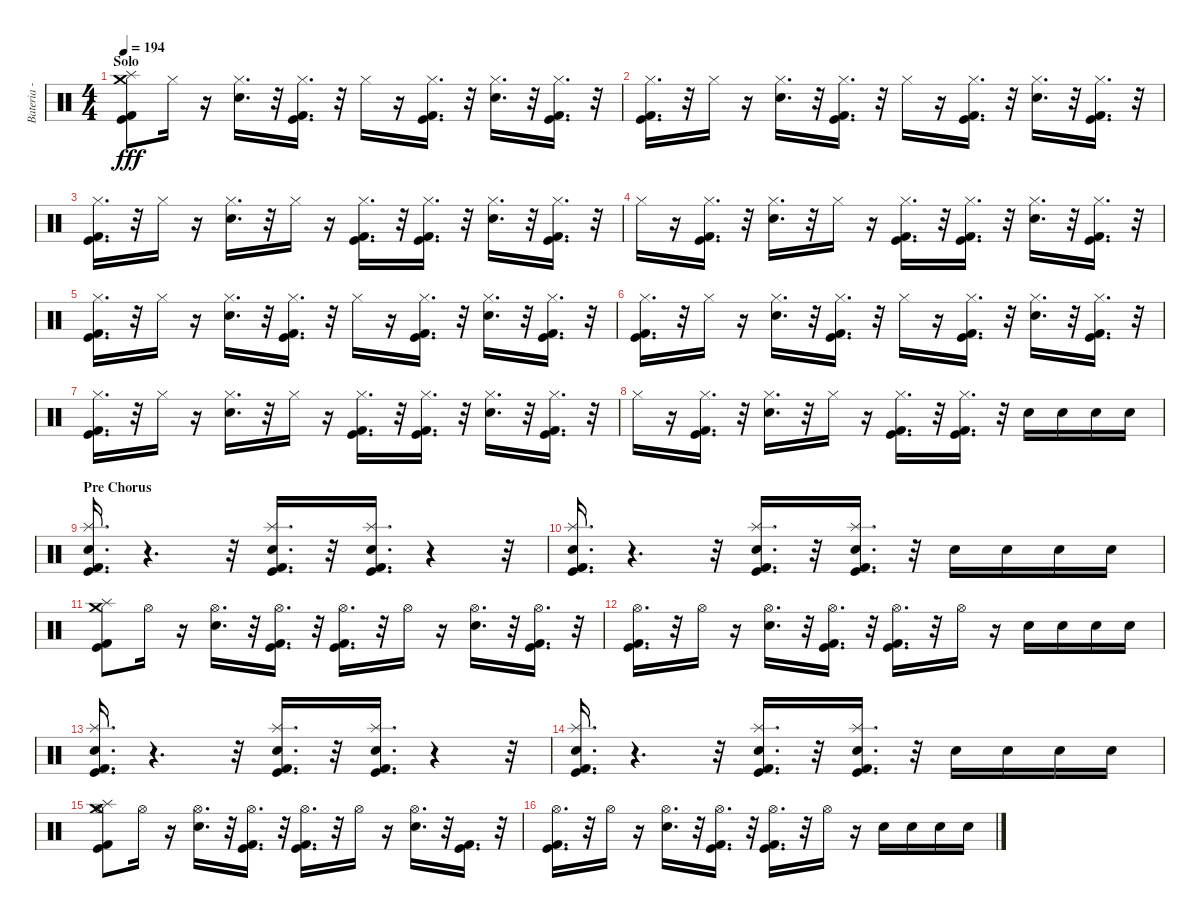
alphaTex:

\track ("Bateria - Larzon" "Bateria - ") {instrument percussion}
\staff {score}
\articulation defaults
\ts (4 4)
\section ("" "Solo")
\tempo 194
\clef neutral
\ks c
("Kick (hit)" "Kick (hit) 2" "Splash (hit)" "Crash medium (hit)").8{dy fff} "Hi-Hat (closed)".16 r.16 ("Hi-Hat (closed)" "Electric Snare (hit)").16{d} r.32 ("Hi-Hat (closed)" "Kick (hit)" "Kick (hit) 2").16{d} r.32 "Hi-Hat (closed)".16 r.16 ("Hi-Hat (closed)" "Kick (hit)" "Kick (hit) 2").16{d} r.32 ("Hi-Hat (closed)" "Electric Snare (hit)").16{d} r.32 ("Hi-Hat (closed)" "Kick (hit)" "Kick (hit) 2").16{d} r.32 |
("Kick (hit)" "Kick (hit) 2" "Hi-Hat (closed)").16{d} r.32 "Hi-Hat (closed)".16 r.16 ("Hi-Hat (closed)" "Electric Snare (hit)").16{d} r.32 ("Hi-Hat (closed)" "Kick (hit)" "Kick (hit) 2").16{d} r.32 "Hi-Hat (closed)".16 r.16 ("Hi-Hat (closed)" "Kick (hit)" "Kick (hit) 2").16{d} r.32 ("Hi-Hat (closed)" "Electric Snare (hit)").16{d} r.32 ("Hi-Hat (closed)" "Kick (hit)" "Kick (hit) 2").16{d} r.32 |
("Kick (hit)" "Kick (hit) 2" "Hi-Hat (closed)").16{d} r.32 "Hi-Hat (closed)".16 r.16 ("Hi-Hat (closed)" "Electric Snare (hit)").16{d} r.32 "Hi-Hat (closed)".16 r.16 ("Kick (hit)" "Kick (hit) 2" "Hi-Hat (closed)").16{d} r.32 ("Hi-Hat (closed)" "Kick (hit)" "Kick (hit) 2").16{d} r.32 ("Hi-Hat (closed)" "Electric Snare (hit)").16{d} r.32 ("Hi-Hat (closed)" "Kick (hit)" "Kick (hit) 2").16{d} r.32 |
"Hi-Hat (closed)".16 r.16 ("Hi-Hat (closed)" "Kick (hit)" "Kick (hit) 2").16{d} r.32 ("Hi-Hat (closed)" "Electric Snare (hit)").16{d} r.32 "Hi-Hat (closed)".16 r.16 ("Hi-Hat (closed)" "Kick (hit)" "Kick (hit) 2").16{d} r.32 ("Hi-Hat (closed)" "Kick (hit)" "Kick (hit) 2").16{d} r.32 ("Hi-Hat (closed)" "Electric Snare (hit)").16{d} r.32 ("Hi-Hat (closed)" "Kick (hit)" "Kick (hit) 2").16{d} r.32 |
("Kick (hit)" "Kick (hit) 2" "Hi-Hat (closed)").16{d} r.32 "Hi-Hat (closed)".16 r.16 ("Hi-Hat (closed)" "Electric Snare (hit)").16{d} r.32 ("Hi-Hat (closed)" "Kick (hit)" "Kick (hit) 2").16{d} r.32 "Hi-Hat (closed)".16 r.16 ("Hi-Hat (closed)" "Kick (hit)" "Kick (hit) 2").16{d} r.32 ("Hi-Hat (closed)" "Electric Snare (hit)").16{d} r.32 ("Hi-Hat (closed)" "Kick (hit)" "Kick (hit) 2").16{d} r.32 |
("Kick (hit)" "Kick (hit) 2" "Hi-Hat (closed)").16{d} r.32 "Hi-Hat (closed)".16 r.16 ("Hi-Hat (closed)" "Electric Snare (hit)").16{d} r.32 ("Hi-Hat (closed)" "Kick (hit)" "Kick (hit) 2").16{d} r.32 "Hi-Hat (closed)".16 r.16 ("Hi-Hat (closed)" "Kick (hit)" "Kick (hit) 2").16{d} r.32 ("Hi-Hat (closed)" "Electric Snare (hit)").16{d} r.32 ("Hi-Hat (closed)" "Kick (hit)" "Kick (hit) 2").16{d} r.32 |
("Kick (hit)" "Kick (hit) 2" "Hi-Hat (closed)").16{d} r.32 "Hi-Hat (closed)".16 r.16 ("Hi-Hat (closed)" "Electric Snare (hit)").16{d} r.32 "Hi-Hat (closed)".16 r.16 ("Kick (hit)" "Kick (hit) 2" "Hi-Hat (closed)").16{d} r.32 ("Hi-Hat (closed)" "Kick (hit)" "Kick (hit) 2").16{d} r.32 ("Hi-Hat (closed)" "Electric Snare (hit)").16{d} r.32 ("Hi-Hat (closed)" "Kick (hit)" "Kick (hit) 2").16{d} r.32 |
"Hi-Hat (closed)".16 r.16 ("Hi-Hat (closed)" "Kick (hit)" "Kick (hit) 2").16{d} r.32 ("Hi-Hat (closed)" "Electric Snare (hit)").16{d} r.32 "Hi-Hat (closed)".16 r.16 ("Hi-Hat (closed)" "Kick (hit)" "Kick (hit) 2").16{d} r.32 ("Hi-Hat (closed)" "Kick (hit)" "Kick (hit) 2").16{d} r.32 "Electric Snare (hit)".16 "Electric Snare (hit)".16 "Electric Snare (hit)".16 "Electric Snare (hit)".16 |
\section ("" "Pre Chorus")
("Kick (hit)" "Kick (hit) 2" "Electric Snare (hit)" "Splash (hit)").16{d} r.4{d} r.32 ("Kick (hit)" "Kick (hit) 2" "Electric Snare (hit)" "Splash (hit)").16{d} r.32 ("Kick (hit)" "Kick (hit) 2" "Electric Snare (hit)" "Splash (hit)").16{d} r.4 r.32 |
("Kick (hit) 2" "Electric Snare (hit)" "Kick (hit)" "Splash (hit)").16{d} r.4{d} r.32 ("Kick (hit) 2" "Electric Snare (hit)" "Kick (hit)" "Splash (hit)").16{d} r.32 ("Kick (hit) 2" "Electric Snare (hit)" "Kick (hit)" "Splash (hit)").16{d} r.32 "Electric Snare (hit)".16 "Electric Snare (hit)".16 "Electric Snare (hit)".16 "Electric Snare (hit)".16 |
("Kick (hit) 2" "Kick (hit)" "Splash (hit)" "Crash medium (hit)").8 "Hi-Hat (open)".16 r.16 ("Electric Snare (hit)" "Hi-Hat (open)").16{d} r.32 ("Kick (hit) 2" "Kick (hit)" "Hi-Hat (open)").16{d} r.32 ("Kick (hit)" "Kick (hit) 2" "Hi-Hat (open)").16{d} r.32 "Hi-Hat (open)".16 r.16 ("Electric Snare (hit)" "Hi-Hat (open)").16{d} r.32 ("Kick (hit)" "Kick (hit) 2" "Hi-Hat (open)").16{d} r.32 |
("Kick (hit)" "Kick (hit) 2" "Hi-Hat (open)").16{d} r.32 "Hi-Hat (open)".16 r.16 ("Electric Snare (hit)" "Hi-Hat (open)").16{d} r.32 ("Hi-Hat (open)" "Kick (hit)" "Kick (hit) 2").16{d} r.32 ("Kick (hit)" "Kick (hit) 2" "Hi-Hat (open)").16{d} r.32 "Hi-Hat (open)".16 r.16 "Electric Snare (hit)".16 "Electric Snare (hit)".16 "Electric Snare (hit)".16 "Electric Snare (hit)".16 |
("Kick (hit)" "Kick (hit) 2" "Electric Snare (hit)" "Splash (hit)").16{d} r.4{d} r.32 ("Kick (hit)" "Kick (hit) 2" "Electric Snare (hit)" "Splash (hit)").16{d} r.32 ("Kick (hit)" "Kick (hit) 2" "Electric Snare (hit)" "Splash (hit)").16{d} r.4 r.32 |
("Kick (hit) 2" "Electric Snare (hit)" "Kick (hit)" "Splash (hit)").16{d} r.4{d} r.32 ("Kick (hit) 2" "Electric Snare (hit)" "Kick (hit)" "Splash (hit)").16{d} r.32 ("Kick (hit) 2" "Electric Snare (hit)" "Kick (hit)" "Splash (hit)").16{d} r.32 "Electric Snare (hit)".16 "Electric Snare (hit)".16 "Electric Snare (hit)".16 "Electric Snare (hit)".16 |
("Kick (hit) 2" "Kick (hit)" "Splash (hit)" "Crash medium (hit)" "Hi-Hat (open)").8 "Hi-Hat (open)".16 r.16 ("Electric Snare (hit)" "Hi-Hat (open)").16{d} r.32 ("Kick (hit) 2" "Kick (hit)" "Hi-Hat (open)").16{d} r.32 ("Kick (hit)" "Kick (hit) 2" "Hi-Hat (open)").16{d} r.32 "Hi-Hat (open)".16 r.16 ("Electric Snare (hit)" "Hi-Hat (open)").16{d} r.32 ("Kick (hit)" "Kick (hit) 2").16{d} r.32 |
("Kick (hit)" "Kick (hit) 2" "Hi-Hat (open)").16{d} r.32 "Hi-Hat (open)".16 r.16 ("Electric Snare (hit)" "Hi-Hat (open)").16{d} r.32 ("Hi-Hat (open)" "Kick (hit)" "Kick (hit) 2").16{d} r.32 ("Kick (hit)" "Kick (hit) 2" "Hi-Hat (open)").16{d} r.32 "Hi-Hat (open)".16 r.16 "Electric Snare (hit)".16 "Electric Snare (hit)".16 "Electric Snare (hit)".16 "Electric Snare (hit)".16
